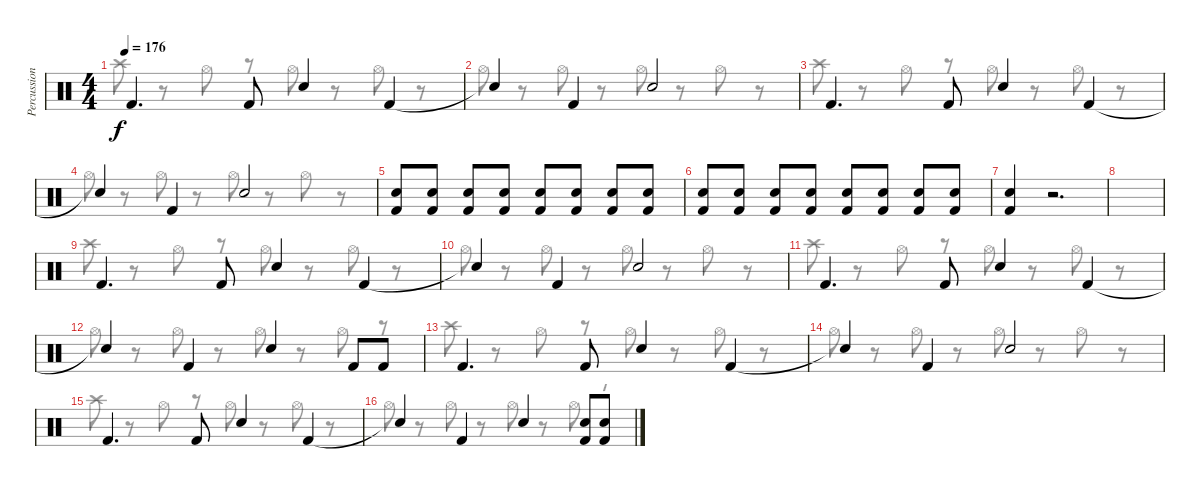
\track ("Percussion" "Percussion") {instrument percussion}
\staff {score}
\articulation defaults
\voice
\ts (4 4)
\tempo 176
\clef neutral
\ks c "Kick (hit) 2".4{d dy f} "Kick (hit) 2".8 "Electric Snare (hit)".4 "Kick (hit) 2".4
|
"Snare (hit)"{t}.4 "Kick (hit) 2".4 "Electric Snare (hit)".2 |
"Kick (hit) 2".4{d} "Kick (hit) 2".8 "Electric Snare (hit)".4 "Kick (hit) 2".4 |
"Snare (hit)"{t}.4 "Kick (hit) 2".4 "Electric Snare (hit)".2 |
("Electric Snare (hit)" "Kick (hit) 2").8 ("Electric Snare (hit)" "Kick (hit) 2").8 ("Electric Snare (hit)" "Kick (hit) 2").8 ("Electric Snare (hit)" "Kick (hit) 2").8 ("Electric Snare (hit)" "Kick (hit) 2").8 ("Electric Snare (hit)" "Kick (hit) 2").8 ("Electric Snare (hit)" "Kick (hit) 2").8 ("Electric Snare (hit)" "Kick (hit) 2").8 |
("Electric Snare (hit)" "Kick (hit) 2").8 ("Electric Snare (hit)" "Kick (hit) 2").8 ("Electric Snare (hit)" "Kick (hit) 2").8 ("Electric Snare (hit)" "Kick (hit) 2").8 ("Electric Snare (hit)" "Kick (hit) 2").8 ("Electric Snare (hit)" "Kick (hit) 2").8 ("Electric Snare (hit)" "Kick (hit) 2").8 ("Electric Snare (hit)" "Kick (hit) 2").8 |
("Electric Snare (hit)" "Kick (hit) 2").4 r.2{d} |
|
"Kick (hit) 2".4{d} "Kick (hit) 2".8 "Electric Snare (hit)".4 "Kick (hit) 2".4 |
"Snare (hit)"{t}.4 "Kick (hit) 2".4 "Electric Snare (hit)".2 |
"Kick (hit) 2".4{d} "Kick (hit) 2".8 "Electric Snare (hit)".4 "Kick (hit) 2".4 |
"Snare (hit)"{t}.4 "Kick (hit) 2".4 "Electric Snare (hit)".4 "Kick (hit) 2".8 "Kick (hit) 2".8 |
"Kick (hit) 2".4{d} "Kick (hit) 2".8 "Electric Snare (hit)".4 "Kick (hit) 2".4 |
"Snare (hit)"{t}.4 "Kick (hit) 2".4 "Electric Snare (hit)".2 |
"Kick (hit) 2".4{d} "Kick (hit) 2".8 "Electric Snare (hit)".4 "Kick (hit) 2".4 |
"Snare (hit)"{t}.4 "Kick (hit) 2".4 "Electric Snare (hit)".4 ("Electric Snare (hit)" "Kick (hit) 2").8 ("Electric Snare (hit)" "Kick (hit) 2").8
\voice
\clef neutral
\ottava regular
\simile none
\ks c "Crash high (hit)".8{dy f}
r.8 "Hi-Hat (open)".8 r.8 "Hi-Hat (open)".8 r.8 "Hi-Hat (open)".8 r.8 |
"Hi-Hat (open)".8 r.8 "Hi-Hat (open)".8 r.8 "Hi-Hat (open)".8 r.8 "Hi-Hat (open)".8 r.8 |
"Crash high (hit)".8 r.8 "Hi-Hat (open)".8 r.8 "Hi-Hat (open)".8 r.8 "Hi-Hat (open)".8 r.8 |
"Hi-Hat (open)".8 r.8 "Hi-Hat (open)".8 r.8 "Hi-Hat (open)".8 r.8 "Hi-Hat (open)".8 r.8 |
|
|
|
|
"Crash high (hit)".8 r.8 "Hi-Hat (open)".8 r.8 "Hi-Hat (open)".8 r.8 "Hi-Hat (open)".8 r.8 |
"Hi-Hat (open)".8 r.8 "Hi-Hat (open)".8 r.8 "Hi-Hat (open)".8 r.8 "Hi-Hat (open)".8 r.8 |
"Crash high (hit)".8 r.8 "Hi-Hat (open)".8 r.8 "Hi-Hat (open)".8 r.8 "Hi-Hat (open)".8 r.8 |
"Hi-Hat (open)".8 r.8 "Hi-Hat (open)".8 r.8 "Hi-Hat (open)".8 r.8 "Hi-Hat (open)".8 r.8 |
"Crash high (hit)".8 r.8 "Hi-Hat (open)".8 r.8 "Hi-Hat (open)".8 r.8 "Hi-Hat (open)".8 r.8 |
"Hi-Hat (open)".8 r.8 "Hi-Hat (open)".8 r.8 "Hi-Hat (open)".8 r.8 "Hi-Hat (open)".8 r.8 |
"Crash high (hit)".8 r.8 "Hi-Hat (open)".8 r.8 "Hi-Hat (open)".8 r.8 "Hi-Hat (open)".8 r.8 |
"Hi-Hat (open)".8 r.8 "Hi-Hat (open)".8 r.8 "Hi-Hat (open)".8 r.8 "Hi-Hat (open)".8 r.8
